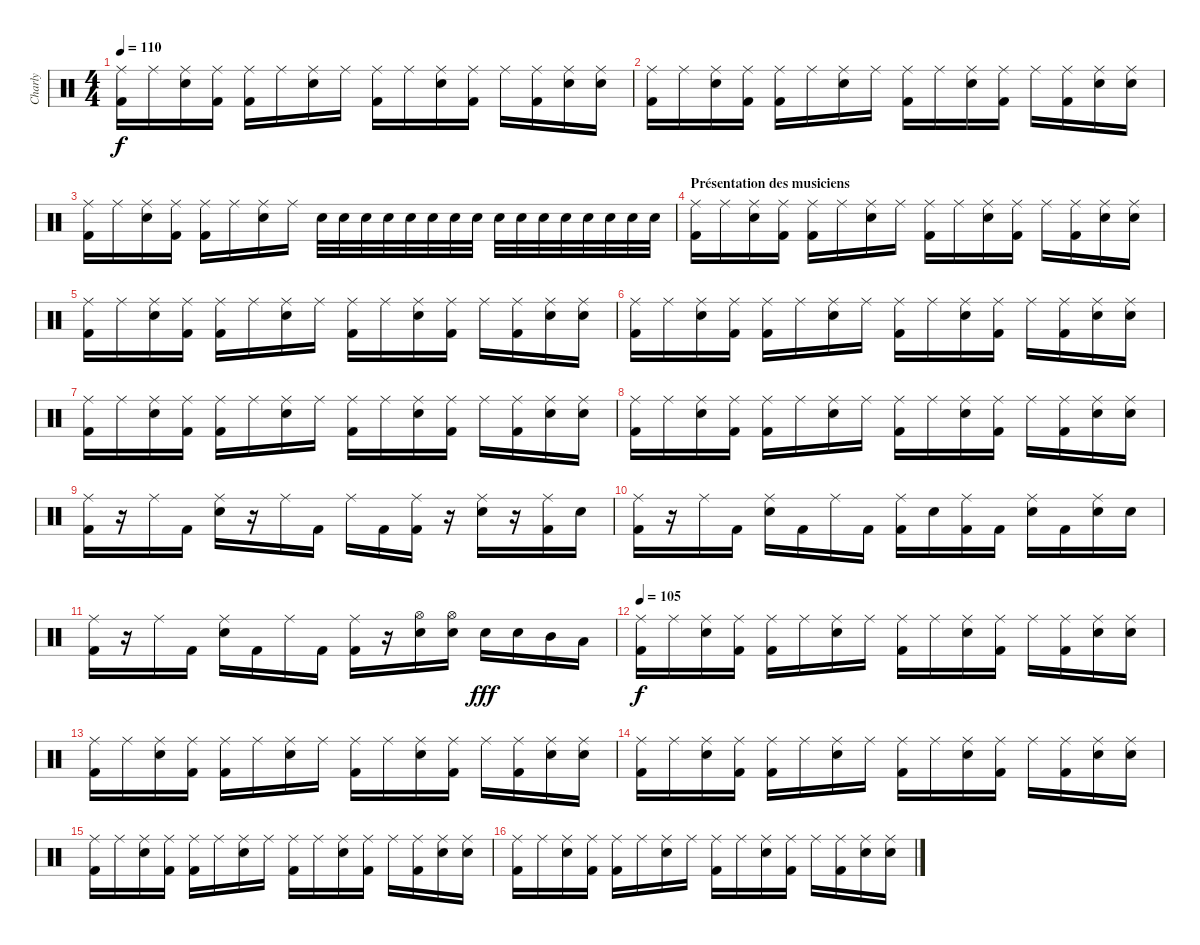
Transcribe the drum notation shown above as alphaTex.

\track ("Charly" "Charly") {instrument percussion}
\staff {score}
\articulation defaults
\ts (4 4)
\tempo 110
\clef neutral
\ks c
("Ride (middle)" "Kick (hit) 2").16{dy f} "Ride (middle)".16 ("Ride (middle)" "Electric Snare (hit)").16 ("Ride (middle)" "Kick (hit) 2").16 ("Ride (middle)" "Kick (hit) 2").16 "Ride (middle)".16 ("Ride (middle)" "Electric Snare (hit)").16 "Ride (middle)".16 ("Ride (middle)" "Kick (hit) 2").16 "Ride (middle)".16 ("Ride (middle)" "Electric Snare (hit)").16 ("Ride (middle)" "Kick (hit) 2").16 "Ride (middle)".16 ("Ride (middle)" "Kick (hit) 2").16 ("Ride (middle)" "Electric Snare (hit)").16 ("Ride (middle)" "Electric Snare (hit)").16 |
("Ride (middle)" "Kick (hit) 2").16 "Ride (middle)".16 ("Ride (middle)" "Electric Snare (hit)").16 ("Ride (middle)" "Kick (hit) 2").16 ("Ride (middle)" "Kick (hit) 2").16 "Ride (middle)".16 ("Ride (middle)" "Electric Snare (hit)").16 "Ride (middle)".16 ("Ride (middle)" "Kick (hit) 2").16 "Ride (middle)".16 ("Ride (middle)" "Electric Snare (hit)").16 ("Ride (middle)" "Kick (hit) 2").16 "Ride (middle)".16 ("Ride (middle)" "Kick (hit) 2").16 ("Ride (middle)" "Electric Snare (hit)").16 ("Ride (middle)" "Electric Snare (hit)").16 |
("Ride (middle)" "Kick (hit) 2").16 "Ride (middle)".16 ("Ride (middle)" "Electric Snare (hit)").16 ("Ride (middle)" "Kick (hit) 2").16 ("Ride (middle)" "Kick (hit) 2").16 "Ride (middle)".16 ("Ride (middle)" "Electric Snare (hit)").16 "Ride (middle)".16 "Electric Snare (hit)".32 "Electric Snare (hit)".32 "Electric Snare (hit)".32 "Electric Snare (hit)".32 "Electric Snare (hit)".32 "Electric Snare (hit)".32 "Electric Snare (hit)".32 "Electric Snare (hit)".32 "Electric Snare (hit)".32 "Electric Snare (hit)".32 "Electric Snare (hit)".32 "Electric Snare (hit)".32 "Electric Snare (hit)".32 "Electric Snare (hit)".32 "Electric Snare (hit)".32 "Electric Snare (hit)".32 |
\section ("" "Présentation des musiciens")
("Ride (middle)" "Kick (hit) 2").16 "Ride (middle)".16 ("Ride (middle)" "Electric Snare (hit)").16 ("Ride (middle)" "Kick (hit) 2").16 ("Ride (middle)" "Kick (hit) 2").16 "Ride (middle)".16 ("Ride (middle)" "Electric Snare (hit)").16 "Ride (middle)".16 ("Ride (middle)" "Kick (hit) 2").16 "Ride (middle)".16 ("Ride (middle)" "Electric Snare (hit)").16 ("Ride (middle)" "Kick (hit) 2").16 "Ride (middle)".16 ("Ride (middle)" "Kick (hit) 2").16 ("Ride (middle)" "Electric Snare (hit)").16 ("Ride (middle)" "Electric Snare (hit)").16 |
("Ride (middle)" "Kick (hit) 2").16 "Ride (middle)".16 ("Ride (middle)" "Electric Snare (hit)").16 ("Ride (middle)" "Kick (hit) 2").16 ("Ride (middle)" "Kick (hit) 2").16 "Ride (middle)".16 ("Ride (middle)" "Electric Snare (hit)").16 "Ride (middle)".16 ("Ride (middle)" "Kick (hit) 2").16 "Ride (middle)".16 ("Ride (middle)" "Electric Snare (hit)").16 ("Ride (middle)" "Kick (hit) 2").16 "Ride (middle)".16 ("Ride (middle)" "Kick (hit) 2").16 ("Ride (middle)" "Electric Snare (hit)").16 ("Ride (middle)" "Electric Snare (hit)").16 |
("Ride (middle)" "Kick (hit) 2").16 "Ride (middle)".16 ("Ride (middle)" "Electric Snare (hit)").16 ("Ride (middle)" "Kick (hit) 2").16 ("Ride (middle)" "Kick (hit) 2").16 "Ride (middle)".16 ("Ride (middle)" "Electric Snare (hit)").16 "Ride (middle)".16 ("Ride (middle)" "Kick (hit) 2").16 "Ride (middle)".16 ("Ride (middle)" "Electric Snare (hit)").16 ("Ride (middle)" "Kick (hit) 2").16 "Ride (middle)".16 ("Ride (middle)" "Kick (hit) 2").16 ("Ride (middle)" "Electric Snare (hit)").16 ("Ride (middle)" "Electric Snare (hit)").16 |
("Ride (middle)" "Kick (hit) 2").16 "Ride (middle)".16 ("Ride (middle)" "Electric Snare (hit)").16 ("Ride (middle)" "Kick (hit) 2").16 ("Ride (middle)" "Kick (hit) 2").16 "Ride (middle)".16 ("Ride (middle)" "Electric Snare (hit)").16 "Ride (middle)".16 ("Ride (middle)" "Kick (hit) 2").16 "Ride (middle)".16 ("Ride (middle)" "Electric Snare (hit)").16 ("Ride (middle)" "Kick (hit) 2").16 "Ride (middle)".16 ("Ride (middle)" "Kick (hit) 2").16 ("Ride (middle)" "Electric Snare (hit)").16 ("Ride (middle)" "Electric Snare (hit)").16 |
("Ride (middle)" "Kick (hit) 2").16 "Ride (middle)".16 ("Ride (middle)" "Electric Snare (hit)").16 ("Ride (middle)" "Kick (hit) 2").16 ("Ride (middle)" "Kick (hit) 2").16 "Ride (middle)".16 ("Ride (middle)" "Electric Snare (hit)").16 "Ride (middle)".16 ("Ride (middle)" "Kick (hit) 2").16 "Ride (middle)".16 ("Ride (middle)" "Electric Snare (hit)").16 ("Ride (middle)" "Kick (hit) 2").16 "Ride (middle)".16 ("Ride (middle)" "Kick (hit) 2").16 ("Ride (middle)" "Electric Snare (hit)").16 ("Ride (middle)" "Electric Snare (hit)").16 |
("Ride (middle)" "Kick (hit) 2").16 r.16 "Ride (middle)".16 "Kick (hit) 2".16 ("Ride (middle)" "Electric Snare (hit)").16 r.16 "Ride (middle)".16 "Kick (hit) 2".16 "Ride (middle)".16 "Kick (hit) 2".16 ("Ride (middle)" "Kick (hit) 2").16 r.16 ("Ride (middle)" "Electric Snare (hit)").16 r.16 ("Ride (middle)" "Kick (hit) 2").16 "Electric Snare (hit)".16 |
("Ride (middle)" "Kick (hit) 2").16 r.16 "Ride (middle)".16 "Kick (hit) 2".16 ("Ride (middle)" "Electric Snare (hit)").16 "Kick (hit) 2".16 "Ride (middle)".16 "Kick (hit) 2".16 ("Ride (middle)" "Kick (hit) 2").16 "Electric Snare (hit)".16 ("Ride (middle)" "Kick (hit) 2").16 "Kick (hit) 2".16 ("Ride (middle)" "Electric Snare (hit)").16 "Kick (hit) 2".16 ("Ride (middle)" "Electric Snare (hit)").16 "Electric Snare (hit)".16 |
("Ride (middle)" "Kick (hit) 2").16 r.16 "Ride (middle)".16 "Kick (hit) 2".16 ("Ride (middle)" "Electric Snare (hit)").16 "Kick (hit) 2".16 "Ride (middle)".16 "Kick (hit) 2".16 ("Ride (middle)" "Kick (hit) 2").16 r.16 ("Hi-Hat (open)" "Electric Snare (hit)").16 ("Hi-Hat (open)" "Electric Snare (hit)").16 "Electric Snare (hit)".16{dy fff} "Electric Snare (hit)".16 "Mid Tom (hit)".16 "Low Tom (hit)".16 |
\tempo 105
("Ride (middle)" "Kick (hit) 2").16{dy f} "Ride (middle)".16 ("Ride (middle)" "Electric Snare (hit)").16 ("Ride (middle)" "Kick (hit) 2").16 ("Ride (middle)" "Kick (hit) 2").16 "Ride (middle)".16 ("Ride (middle)" "Electric Snare (hit)").16 "Ride (middle)".16 ("Ride (middle)" "Kick (hit) 2").16 "Ride (middle)".16 ("Ride (middle)" "Electric Snare (hit)").16 ("Ride (middle)" "Kick (hit) 2").16 "Ride (middle)".16 ("Ride (middle)" "Kick (hit) 2").16 ("Ride (middle)" "Electric Snare (hit)").16 ("Ride (middle)" "Electric Snare (hit)").16 |
("Ride (middle)" "Kick (hit) 2").16 "Ride (middle)".16 ("Ride (middle)" "Electric Snare (hit)").16 ("Ride (middle)" "Kick (hit) 2").16 ("Ride (middle)" "Kick (hit) 2").16 "Ride (middle)".16 ("Ride (middle)" "Electric Snare (hit)").16 "Ride (middle)".16 ("Ride (middle)" "Kick (hit) 2").16 "Ride (middle)".16 ("Ride (middle)" "Electric Snare (hit)").16 ("Ride (middle)" "Kick (hit) 2").16 "Ride (middle)".16 ("Ride (middle)" "Kick (hit) 2").16 ("Ride (middle)" "Electric Snare (hit)").16 ("Ride (middle)" "Electric Snare (hit)").16 |
("Ride (middle)" "Kick (hit) 2").16 "Ride (middle)".16 ("Ride (middle)" "Electric Snare (hit)").16 ("Ride (middle)" "Kick (hit) 2").16 ("Ride (middle)" "Kick (hit) 2").16 "Ride (middle)".16 ("Ride (middle)" "Electric Snare (hit)").16 "Ride (middle)".16 ("Ride (middle)" "Kick (hit) 2").16 "Ride (middle)".16 ("Ride (middle)" "Electric Snare (hit)").16 ("Ride (middle)" "Kick (hit) 2").16 "Ride (middle)".16 ("Ride (middle)" "Kick (hit) 2").16 ("Ride (middle)" "Electric Snare (hit)").16 ("Ride (middle)" "Electric Snare (hit)").16 |
("Ride (middle)" "Kick (hit) 2").16 "Ride (middle)".16 ("Ride (middle)" "Electric Snare (hit)").16 ("Ride (middle)" "Kick (hit) 2").16 ("Ride (middle)" "Kick (hit) 2").16 "Ride (middle)".16 ("Ride (middle)" "Electric Snare (hit)").16 "Ride (middle)".16 ("Ride (middle)" "Kick (hit) 2").16 "Ride (middle)".16 ("Ride (middle)" "Electric Snare (hit)").16 ("Ride (middle)" "Kick (hit) 2").16 "Ride (middle)".16 ("Ride (middle)" "Kick (hit) 2").16 ("Ride (middle)" "Electric Snare (hit)").16 ("Ride (middle)" "Electric Snare (hit)").16 |
("Ride (middle)" "Kick (hit) 2").16 "Ride (middle)".16 ("Ride (middle)" "Electric Snare (hit)").16 ("Ride (middle)" "Kick (hit) 2").16 ("Ride (middle)" "Kick (hit) 2").16 "Ride (middle)".16 ("Ride (middle)" "Electric Snare (hit)").16 "Ride (middle)".16 ("Ride (middle)" "Kick (hit) 2").16 "Ride (middle)".16 ("Ride (middle)" "Electric Snare (hit)").16 ("Ride (middle)" "Kick (hit) 2").16 "Ride (middle)".16 ("Ride (middle)" "Kick (hit) 2").16 ("Ride (middle)" "Electric Snare (hit)").16 ("Ride (middle)" "Electric Snare (hit)").16
